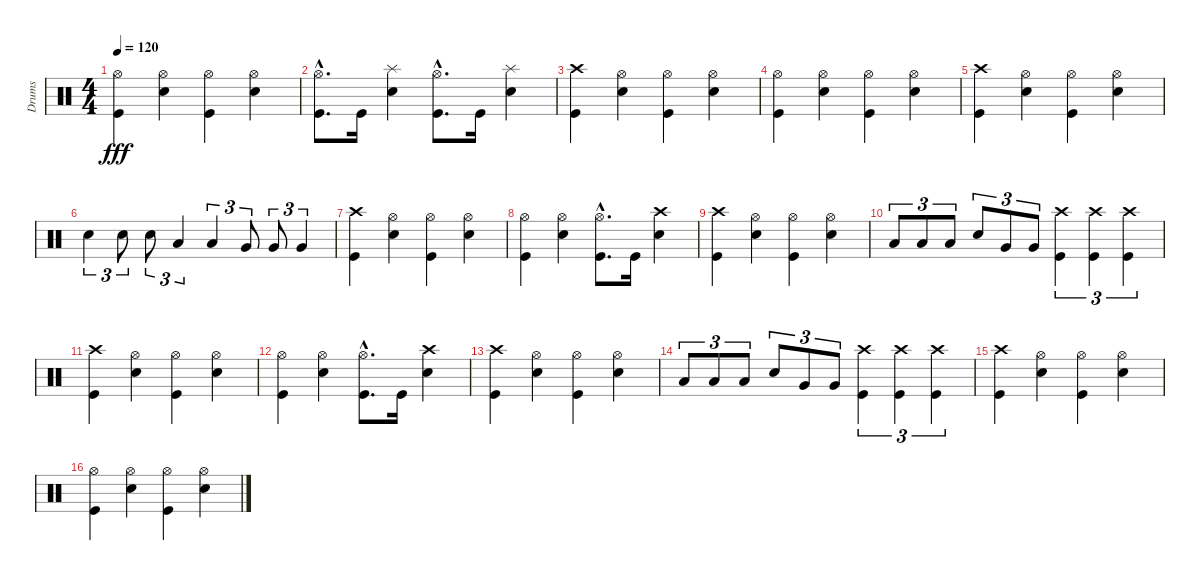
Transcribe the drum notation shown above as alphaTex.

\track ("Drums" "Drums") {instrument percussion}
\staff {score}
\articulation defaults
\ts (4 4)
\tempo 120
\clef neutral
\ks c
("Hi-Hat (open)" "Kick (hit)").4{dy fff} ("Hi-Hat (open)" "Snare (hit) 2").4 ("Hi-Hat (open)" "Kick (hit)").4 ("Hi-Hat (open)" "Snare (hit) 2").4 |
("Hi-Hat (open)"{hac} "Kick (hit)"{hac}).8{d} "Kick (hit)".16 ("Splash (hit)" "Snare (hit) 2").4 ("Hi-Hat (open)"{hac} "Kick (hit)"{hac}).8{d} "Kick (hit)".16 ("Splash (hit)" "Snare (hit) 2").4 |
("Crash high (hit)" "Kick (hit)").4 ("Hi-Hat (open)" "Snare (hit) 2").4 ("Hi-Hat (open)" "Kick (hit)").4 ("Hi-Hat (open)" "Snare (hit) 2").4 |
("Hi-Hat (open)" "Kick (hit)").4 ("Hi-Hat (open)" "Snare (hit) 2").4 ("Hi-Hat (open)" "Kick (hit)").4 ("Hi-Hat (open)" "Snare (hit) 2").4 |
("Crash high (hit)" "Kick (hit)").4 ("Hi-Hat (open)" "Snare (hit) 2").4 ("Hi-Hat (open)" "Kick (hit)").4 ("Hi-Hat (open)" "Snare (hit) 2").4 |
"Snare (hit) 2".4{tu (3 2)} "Snare (hit) 2".8{tu (3 2)} "Snare (hit) 2".8{tu (3 2)} "Low Tom (hit)".4{tu (3 2)} "Low Tom (hit)".4{tu (3 2)} "Very Low Tom (hit)".8{tu (3 2)} "Very Low Tom (hit)".8{tu (3 2)} "Very Low Tom (hit)".4{tu (3 2)} |
("Crash high (hit)" "Kick (hit)").4 ("Hi-Hat (open)" "Snare (hit) 2").4 ("Hi-Hat (open)" "Kick (hit)").4 ("Hi-Hat (open)" "Snare (hit) 2").4 |
("Hi-Hat (open)" "Kick (hit)").4 ("Hi-Hat (open)" "Snare (hit) 2").4 ("Hi-Hat (open)"{hac} "Kick (hit)"{hac}).8{d} "Kick (hit)".16 ("Crash high (hit)" "Snare (hit) 2").4 |
("Crash high (hit)" "Kick (hit)").4 ("Hi-Hat (open)" "Snare (hit) 2").4 ("Hi-Hat (open)" "Kick (hit)").4 ("Hi-Hat (open)" "Snare (hit) 2").4 |
"Low Tom (hit)".8{tu (3 2)} "Low Tom (hit)".8{tu (3 2)} "Low Tom (hit)".8{tu (3 2)} "Snare (hit) 2".8{tu (3 2)} "Very Low Tom (hit)".8{tu (3 2)} "Very Low Tom (hit)".8{tu (3 2)} ("Crash high (hit)" "Kick (hit)").4{tu (3 2)} ("Crash high (hit)" "Kick (hit)").4{tu (3 2)} ("Crash high (hit)" "Kick (hit)").4{tu (3 2)} |
("Crash high (hit)" "Kick (hit)").4 ("Hi-Hat (open)" "Snare (hit) 2").4 ("Hi-Hat (open)" "Kick (hit)").4 ("Hi-Hat (open)" "Snare (hit) 2").4 |
("Hi-Hat (open)" "Kick (hit)").4 ("Hi-Hat (open)" "Snare (hit) 2").4 ("Hi-Hat (open)"{hac} "Kick (hit)"{hac}).8{d} "Kick (hit)".16 ("Crash high (hit)" "Snare (hit) 2").4 |
("Crash high (hit)" "Kick (hit)").4 ("Hi-Hat (open)" "Snare (hit) 2").4 ("Hi-Hat (open)" "Kick (hit)").4 ("Hi-Hat (open)" "Snare (hit) 2").4 |
"Low Tom (hit)".8{tu (3 2)} "Low Tom (hit)".8{tu (3 2)} "Low Tom (hit)".8{tu (3 2)} "Snare (hit) 2".8{tu (3 2)} "Very Low Tom (hit)".8{tu (3 2)} "Very Low Tom (hit)".8{tu (3 2)} ("Crash high (hit)" "Kick (hit)").4{tu (3 2)} ("Crash high (hit)" "Kick (hit)").4{tu (3 2)} ("Crash high (hit)" "Kick (hit)").4{tu (3 2)} |
("Crash high (hit)" "Kick (hit)").4 ("Hi-Hat (open)" "Snare (hit) 2").4 ("Hi-Hat (open)" "Kick (hit)").4 ("Hi-Hat (open)" "Snare (hit) 2").4 |
("Hi-Hat (open)" "Kick (hit)").4 ("Hi-Hat (open)" "Snare (hit) 2").4 ("Hi-Hat (open)" "Kick (hit)").4 ("Hi-Hat (open)" "Snare (hit) 2").4
